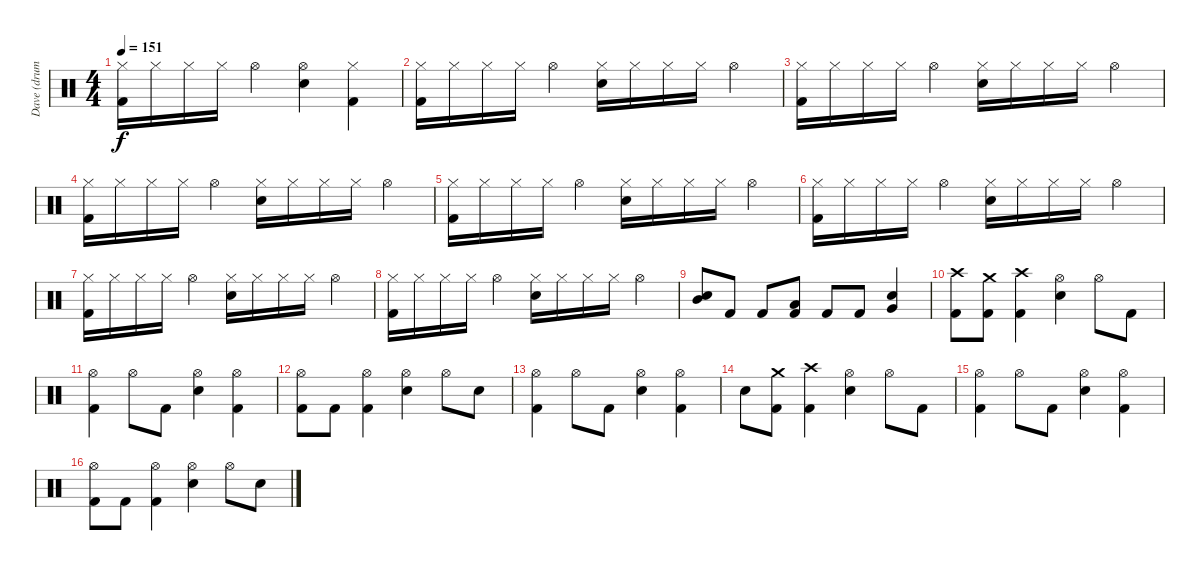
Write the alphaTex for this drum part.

\track ("Dave (drums)" "Dave (drum") {instrument percussion}
\staff {score}
\articulation defaults
\ts (4 4)
\tempo 151
\clef neutral
\ks c
("Hi-Hat (closed)" "Kick (hit) 2").16{dy f} "Hi-Hat (closed)".16 "Hi-Hat (closed)".16 "Hi-Hat (closed)".16 "Hi-Hat (open)".4 ("Hi-Hat (open)" "Electric Snare (hit)").4 ("Hi-Hat (closed)" "Kick (hit) 2").4 |
("Hi-Hat (closed)" "Kick (hit) 2").16 "Hi-Hat (closed)".16 "Hi-Hat (closed)".16 "Hi-Hat (closed)".16 "Hi-Hat (open)".4 ("Hi-Hat (closed)" "Electric Snare (hit)").16 "Hi-Hat (closed)".16 "Hi-Hat (closed)".16 "Hi-Hat (closed)".16 "Hi-Hat (open)".4 |
("Hi-Hat (closed)" "Kick (hit) 2").16 "Hi-Hat (closed)".16 "Hi-Hat (closed)".16 "Hi-Hat (closed)".16 "Hi-Hat (open)".4 ("Hi-Hat (closed)" "Electric Snare (hit)").16 "Hi-Hat (closed)".16 "Hi-Hat (closed)".16 "Hi-Hat (closed)".16 "Hi-Hat (open)".4 |
("Hi-Hat (closed)" "Kick (hit) 2").16 "Hi-Hat (closed)".16 "Hi-Hat (closed)".16 "Hi-Hat (closed)".16 "Hi-Hat (open)".4 ("Hi-Hat (closed)" "Electric Snare (hit)").16 "Hi-Hat (closed)".16 "Hi-Hat (closed)".16 "Hi-Hat (closed)".16 "Hi-Hat (open)".4 |
("Hi-Hat (closed)" "Kick (hit) 2").16 "Hi-Hat (closed)".16 "Hi-Hat (closed)".16 "Hi-Hat (closed)".16 "Hi-Hat (open)".4 ("Hi-Hat (closed)" "Electric Snare (hit)").16 "Hi-Hat (closed)".16 "Hi-Hat (closed)".16 "Hi-Hat (closed)".16 "Hi-Hat (open)".4 |
("Hi-Hat (closed)" "Kick (hit) 2").16 "Hi-Hat (closed)".16 "Hi-Hat (closed)".16 "Hi-Hat (closed)".16 "Hi-Hat (open)".4 ("Hi-Hat (closed)" "Electric Snare (hit)").16 "Hi-Hat (closed)".16 "Hi-Hat (closed)".16 "Hi-Hat (closed)".16 "Hi-Hat (open)".4 |
("Hi-Hat (closed)" "Kick (hit) 2").16 "Hi-Hat (closed)".16 "Hi-Hat (closed)".16 "Hi-Hat (closed)".16 "Hi-Hat (open)".4 ("Hi-Hat (closed)" "Electric Snare (hit)").16 "Hi-Hat (closed)".16 "Hi-Hat (closed)".16 "Hi-Hat (closed)".16 "Hi-Hat (open)".4 |
("Hi-Hat (closed)" "Kick (hit) 2").16 "Hi-Hat (closed)".16 "Hi-Hat (closed)".16 "Hi-Hat (closed)".16 "Hi-Hat (open)".4 ("Hi-Hat (closed)" "Electric Snare (hit)").16 "Hi-Hat (closed)".16 "Hi-Hat (closed)".16 "Hi-Hat (closed)".16 "Hi-Hat (open)".4 |
("Mid Tom (hit)" "Electric Snare (hit)").8 "Kick (hit) 2".8 "Kick (hit) 2".8 ("Low Tom (hit)" "Kick (hit) 2").8 "Kick (hit) 2".8 "Kick (hit) 2".8 ("Very Low Tom (hit)" "Electric Snare (hit)").4 |
("Crash high (hit)" "Kick (hit) 2").8 ("Crash medium (hit)" "Kick (hit) 2").8 ("Crash high (hit)" "Kick (hit) 2").4 ("Hi-Hat (open)" "Electric Snare (hit)").4 "Hi-Hat (open)".8 "Kick (hit) 2".8 |
("Hi-Hat (open)" "Kick (hit) 2").4 "Hi-Hat (open)".8 "Kick (hit) 2".8 ("Hi-Hat (open)" "Electric Snare (hit)").4 ("Hi-Hat (open)" "Kick (hit) 2").4 |
("Hi-Hat (open)" "Kick (hit) 2").8 "Kick (hit) 2".8 ("Hi-Hat (open)" "Kick (hit) 2").4 ("Hi-Hat (open)" "Electric Snare (hit)").4 "Hi-Hat (open)".8 "Electric Snare (hit)".8 |
("Hi-Hat (open)" "Kick (hit) 2").4 "Hi-Hat (open)".8 "Kick (hit) 2".8 ("Hi-Hat (open)" "Electric Snare (hit)").4 ("Hi-Hat (open)" "Kick (hit) 2").4 |
"Electric Snare (hit)".8 ("Crash medium (hit)" "Kick (hit) 2").8 ("Crash high (hit)" "Kick (hit) 2").4 ("Hi-Hat (open)" "Electric Snare (hit)").4 "Hi-Hat (open)".8 "Kick (hit) 2".8 |
("Hi-Hat (open)" "Kick (hit) 2").4 "Hi-Hat (open)".8 "Kick (hit) 2".8 ("Hi-Hat (open)" "Electric Snare (hit)").4 ("Hi-Hat (open)" "Kick (hit) 2").4 |
("Hi-Hat (open)" "Kick (hit) 2").8 "Kick (hit) 2".8 ("Hi-Hat (open)" "Kick (hit) 2").4 ("Hi-Hat (open)" "Electric Snare (hit)").4 "Hi-Hat (open)".8 "Electric Snare (hit)".8
